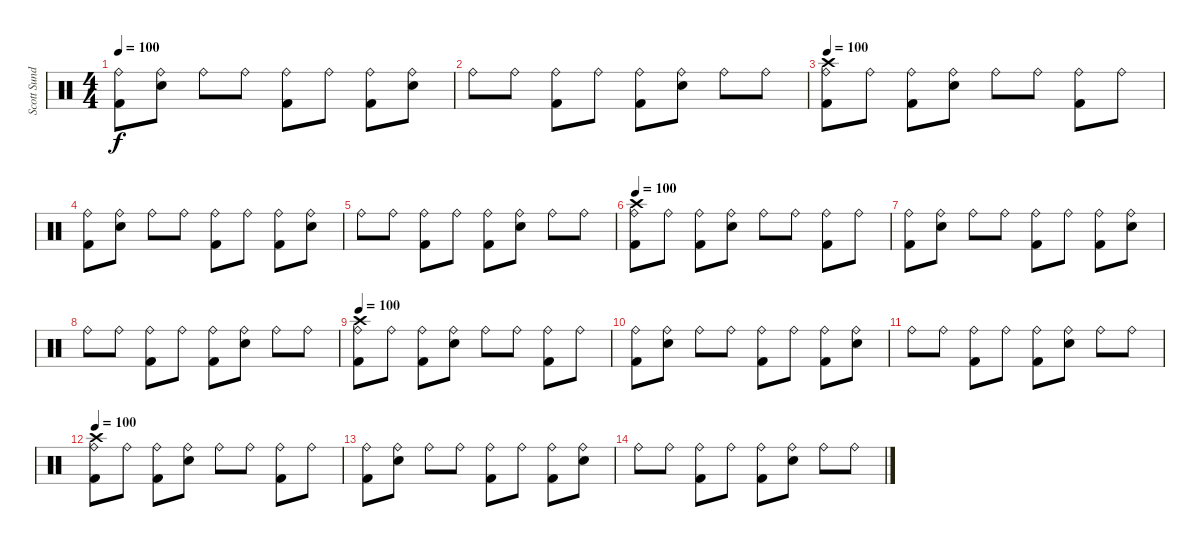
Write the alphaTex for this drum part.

\track ("Scott Sundquist" "Scott Sund") {instrument percussion}
\staff {score}
\articulation defaults
\ts (4 4)
\tempo 100
\clef neutral
\ks c
("Ride (bell)" "Kick (hit) 2").8{dy f} ("Ride (bell)" "Electric Snare (hit)").8 "Ride (bell)".8 "Ride (bell)".8 ("Ride (bell)" "Kick (hit) 2").8 "Ride (bell)".8 ("Ride (bell)" "Kick (hit) 2").8 ("Ride (bell)" "Electric Snare (hit)").8 |
"Ride (bell)".8 "Ride (bell)".8 ("Ride (bell)" "Kick (hit) 2").8 "Ride (bell)".8 ("Ride (bell)" "Kick (hit) 2").8 ("Ride (bell)" "Electric Snare (hit)").8 "Ride (bell)".8 "Ride (bell)".8 |
\tempo 100
("Crash high (hit)" "Ride (bell)" "Kick (hit) 2").8 "Ride (bell)".8 ("Ride (bell)" "Kick (hit) 2").8 ("Ride (bell)" "Electric Snare (hit)").8 "Ride (bell)".8 "Ride (bell)".8 ("Ride (bell)" "Kick (hit) 2").8 "Ride (bell)".8 |
("Ride (bell)" "Kick (hit) 2").8 ("Ride (bell)" "Electric Snare (hit)").8 "Ride (bell)".8 "Ride (bell)".8 ("Ride (bell)" "Kick (hit) 2").8 "Ride (bell)".8 ("Ride (bell)" "Kick (hit) 2").8 ("Ride (bell)" "Electric Snare (hit)").8 |
"Ride (bell)".8 "Ride (bell)".8 ("Ride (bell)" "Kick (hit) 2").8 "Ride (bell)".8 ("Ride (bell)" "Kick (hit) 2").8 ("Ride (bell)" "Electric Snare (hit)").8 "Ride (bell)".8 "Ride (bell)".8 |
\tempo 100
("Crash high (hit)" "Ride (bell)" "Kick (hit) 2").8 "Ride (bell)".8 ("Ride (bell)" "Kick (hit) 2").8 ("Ride (bell)" "Electric Snare (hit)").8 "Ride (bell)".8 "Ride (bell)".8 ("Ride (bell)" "Kick (hit) 2").8 "Ride (bell)".8 |
("Ride (bell)" "Kick (hit) 2").8 ("Ride (bell)" "Electric Snare (hit)").8 "Ride (bell)".8 "Ride (bell)".8 ("Ride (bell)" "Kick (hit) 2").8 "Ride (bell)".8 ("Ride (bell)" "Kick (hit) 2").8 ("Ride (bell)" "Electric Snare (hit)").8 |
"Ride (bell)".8 "Ride (bell)".8 ("Ride (bell)" "Kick (hit) 2").8 "Ride (bell)".8 ("Ride (bell)" "Kick (hit) 2").8 ("Ride (bell)" "Electric Snare (hit)").8 "Ride (bell)".8 "Ride (bell)".8 |
\tempo 100
("Crash high (hit)" "Ride (bell)" "Kick (hit) 2").8 "Ride (bell)".8 ("Ride (bell)" "Kick (hit) 2").8 ("Ride (bell)" "Electric Snare (hit)").8 "Ride (bell)".8 "Ride (bell)".8 ("Ride (bell)" "Kick (hit) 2").8 "Ride (bell)".8 |
("Ride (bell)" "Kick (hit) 2").8 ("Ride (bell)" "Electric Snare (hit)").8 "Ride (bell)".8 "Ride (bell)".8 ("Ride (bell)" "Kick (hit) 2").8 "Ride (bell)".8 ("Ride (bell)" "Kick (hit) 2").8 ("Ride (bell)" "Electric Snare (hit)").8 |
"Ride (bell)".8 "Ride (bell)".8 ("Ride (bell)" "Kick (hit) 2").8 "Ride (bell)".8 ("Ride (bell)" "Kick (hit) 2").8 ("Ride (bell)" "Electric Snare (hit)").8 "Ride (bell)".8 "Ride (bell)".8 |
\tempo 100
("Crash high (hit)" "Ride (bell)" "Kick (hit) 2").8 "Ride (bell)".8 ("Ride (bell)" "Kick (hit) 2").8 ("Ride (bell)" "Electric Snare (hit)").8 "Ride (bell)".8 "Ride (bell)".8 ("Ride (bell)" "Kick (hit) 2").8 "Ride (bell)".8 |
("Ride (bell)" "Kick (hit) 2").8 ("Ride (bell)" "Electric Snare (hit)").8 "Ride (bell)".8 "Ride (bell)".8 ("Ride (bell)" "Kick (hit) 2").8 "Ride (bell)".8 ("Ride (bell)" "Kick (hit) 2").8 ("Ride (bell)" "Electric Snare (hit)").8 |
"Ride (bell)".8 "Ride (bell)".8 ("Ride (bell)" "Kick (hit) 2").8 "Ride (bell)".8 ("Ride (bell)" "Kick (hit) 2").8 ("Ride (bell)" "Electric Snare (hit)").8 "Ride (bell)".8 "Ride (bell)".8
